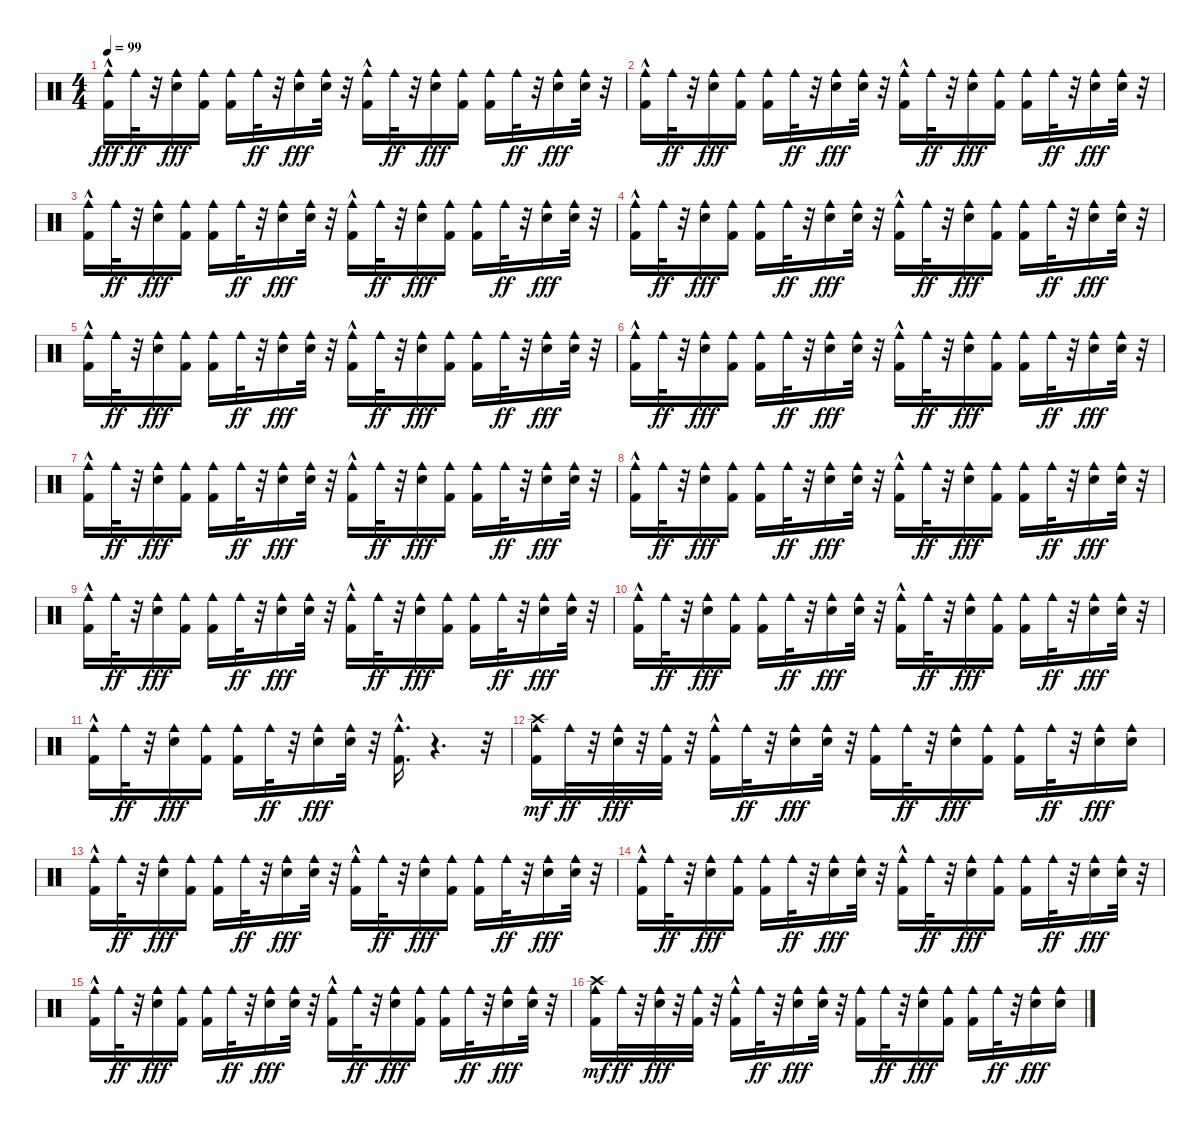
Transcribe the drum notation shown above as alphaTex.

\track "" {instrument percussion}
\staff {score}
\articulation defaults
\ts (4 4)
\tempo 99
\clef neutral
\ks c
("Cowbell medium (hit)" "Kick (hit) 2"{hac}).16{dy fff} "Cowbell medium (hit)".32{dy ff} r.32 ("Cowbell medium (hit)" "Electric Snare (hit)").16{dy fff} ("Cowbell medium (hit)" "Kick (hit) 2").16 ("Cowbell medium (hit)" "Kick (hit) 2").16 "Cowbell medium (hit)".32{dy ff} r.32 ("Cowbell medium (hit)" "Electric Snare (hit)").16{dy fff} ("Cowbell medium (hit)" "Electric Snare (hit)").32 r.32 ("Cowbell medium (hit)" "Kick (hit) 2"{hac}).16 "Cowbell medium (hit)".32{dy ff} r.32 ("Cowbell medium (hit)" "Electric Snare (hit)").16{dy fff} ("Cowbell medium (hit)" "Kick (hit) 2").16 ("Cowbell medium (hit)" "Kick (hit) 2").16 "Cowbell medium (hit)".32{dy ff} r.32 ("Cowbell medium (hit)" "Electric Snare (hit)").16{dy fff} ("Cowbell medium (hit)" "Electric Snare (hit)").32 r.32 |
("Cowbell medium (hit)" "Kick (hit) 2"{hac}).16 "Cowbell medium (hit)".32{dy ff} r.32 ("Cowbell medium (hit)" "Electric Snare (hit)").16{dy fff} ("Cowbell medium (hit)" "Kick (hit) 2").16 ("Cowbell medium (hit)" "Kick (hit) 2").16 "Cowbell medium (hit)".32{dy ff} r.32 ("Cowbell medium (hit)" "Electric Snare (hit)").16{dy fff} ("Cowbell medium (hit)" "Electric Snare (hit)").32 r.32 ("Cowbell medium (hit)" "Kick (hit) 2"{hac}).16 "Cowbell medium (hit)".32{dy ff} r.32 ("Cowbell medium (hit)" "Electric Snare (hit)").16{dy fff} ("Cowbell medium (hit)" "Kick (hit) 2").16 ("Cowbell medium (hit)" "Kick (hit) 2").16 "Cowbell medium (hit)".32{dy ff} r.32 ("Cowbell medium (hit)" "Electric Snare (hit)").16{dy fff} ("Cowbell medium (hit)" "Electric Snare (hit)").32 r.32 |
("Cowbell medium (hit)" "Kick (hit) 2"{hac}).16 "Cowbell medium (hit)".32{dy ff} r.32 ("Cowbell medium (hit)" "Electric Snare (hit)").16{dy fff} ("Cowbell medium (hit)" "Kick (hit) 2").16 ("Cowbell medium (hit)" "Kick (hit) 2").16 "Cowbell medium (hit)".32{dy ff} r.32 ("Cowbell medium (hit)" "Electric Snare (hit)").16{dy fff} ("Cowbell medium (hit)" "Electric Snare (hit)").32 r.32 ("Cowbell medium (hit)" "Kick (hit) 2"{hac}).16 "Cowbell medium (hit)".32{dy ff} r.32 ("Cowbell medium (hit)" "Electric Snare (hit)").16{dy fff} ("Cowbell medium (hit)" "Kick (hit) 2").16 ("Cowbell medium (hit)" "Kick (hit) 2").16 "Cowbell medium (hit)".32{dy ff} r.32 ("Cowbell medium (hit)" "Electric Snare (hit)").16{dy fff} ("Cowbell medium (hit)" "Electric Snare (hit)").32 r.32 |
("Cowbell medium (hit)" "Kick (hit) 2"{hac}).16 "Cowbell medium (hit)".32{dy ff} r.32 ("Cowbell medium (hit)" "Electric Snare (hit)").16{dy fff} ("Cowbell medium (hit)" "Kick (hit) 2").16 ("Cowbell medium (hit)" "Kick (hit) 2").16 "Cowbell medium (hit)".32{dy ff} r.32 ("Cowbell medium (hit)" "Electric Snare (hit)").16{dy fff} ("Cowbell medium (hit)" "Electric Snare (hit)").32 r.32 ("Cowbell medium (hit)" "Kick (hit) 2"{hac}).16 "Cowbell medium (hit)".32{dy ff} r.32 ("Cowbell medium (hit)" "Electric Snare (hit)").16{dy fff} ("Cowbell medium (hit)" "Kick (hit) 2").16 ("Cowbell medium (hit)" "Kick (hit) 2").16 "Cowbell medium (hit)".32{dy ff} r.32 ("Cowbell medium (hit)" "Electric Snare (hit)").16{dy fff} ("Cowbell medium (hit)" "Electric Snare (hit)").32 r.32 |
("Cowbell medium (hit)" "Kick (hit) 2"{hac}).16 "Cowbell medium (hit)".32{dy ff} r.32 ("Cowbell medium (hit)" "Electric Snare (hit)").16{dy fff} ("Cowbell medium (hit)" "Kick (hit) 2").16 ("Cowbell medium (hit)" "Kick (hit) 2").16 "Cowbell medium (hit)".32{dy ff} r.32 ("Cowbell medium (hit)" "Electric Snare (hit)").16{dy fff} ("Cowbell medium (hit)" "Electric Snare (hit)").32 r.32 ("Cowbell medium (hit)" "Kick (hit) 2"{hac}).16 "Cowbell medium (hit)".32{dy ff} r.32 ("Cowbell medium (hit)" "Electric Snare (hit)").16{dy fff} ("Cowbell medium (hit)" "Kick (hit) 2").16 ("Cowbell medium (hit)" "Kick (hit) 2").16 "Cowbell medium (hit)".32{dy ff} r.32 ("Cowbell medium (hit)" "Electric Snare (hit)").16{dy fff} ("Cowbell medium (hit)" "Electric Snare (hit)").32 r.32 |
("Cowbell medium (hit)" "Kick (hit) 2"{hac}).16 "Cowbell medium (hit)".32{dy ff} r.32 ("Cowbell medium (hit)" "Electric Snare (hit)").16{dy fff} ("Cowbell medium (hit)" "Kick (hit) 2").16 ("Cowbell medium (hit)" "Kick (hit) 2").16 "Cowbell medium (hit)".32{dy ff} r.32 ("Cowbell medium (hit)" "Electric Snare (hit)").16{dy fff} ("Cowbell medium (hit)" "Electric Snare (hit)").32 r.32 ("Cowbell medium (hit)" "Kick (hit) 2"{hac}).16 "Cowbell medium (hit)".32{dy ff} r.32 ("Cowbell medium (hit)" "Electric Snare (hit)").16{dy fff} ("Cowbell medium (hit)" "Kick (hit) 2").16 ("Cowbell medium (hit)" "Kick (hit) 2").16 "Cowbell medium (hit)".32{dy ff} r.32 ("Cowbell medium (hit)" "Electric Snare (hit)").16{dy fff} ("Cowbell medium (hit)" "Electric Snare (hit)").32 r.32 |
("Cowbell medium (hit)" "Kick (hit) 2"{hac}).16 "Cowbell medium (hit)".32{dy ff} r.32 ("Cowbell medium (hit)" "Electric Snare (hit)").16{dy fff} ("Cowbell medium (hit)" "Kick (hit) 2").16 ("Cowbell medium (hit)" "Kick (hit) 2").16 "Cowbell medium (hit)".32{dy ff} r.32 ("Cowbell medium (hit)" "Electric Snare (hit)").16{dy fff} ("Cowbell medium (hit)" "Electric Snare (hit)").32 r.32 ("Cowbell medium (hit)" "Kick (hit) 2"{hac}).16 "Cowbell medium (hit)".32{dy ff} r.32 ("Cowbell medium (hit)" "Electric Snare (hit)").16{dy fff} ("Cowbell medium (hit)" "Kick (hit) 2").16 ("Cowbell medium (hit)" "Kick (hit) 2").16 "Cowbell medium (hit)".32{dy ff} r.32 ("Cowbell medium (hit)" "Electric Snare (hit)").16{dy fff} ("Cowbell medium (hit)" "Electric Snare (hit)").32 r.32 |
("Cowbell medium (hit)" "Kick (hit) 2"{hac}).16 "Cowbell medium (hit)".32{dy ff} r.32 ("Cowbell medium (hit)" "Electric Snare (hit)").16{dy fff} ("Cowbell medium (hit)" "Kick (hit) 2").16 ("Cowbell medium (hit)" "Kick (hit) 2").16 "Cowbell medium (hit)".32{dy ff} r.32 ("Cowbell medium (hit)" "Electric Snare (hit)").16{dy fff} ("Cowbell medium (hit)" "Electric Snare (hit)").32 r.32 ("Cowbell medium (hit)" "Kick (hit) 2"{hac}).16 "Cowbell medium (hit)".32{dy ff} r.32 ("Cowbell medium (hit)" "Electric Snare (hit)").16{dy fff} ("Cowbell medium (hit)" "Kick (hit) 2").16 ("Cowbell medium (hit)" "Kick (hit) 2").16 "Cowbell medium (hit)".32{dy ff} r.32 ("Cowbell medium (hit)" "Electric Snare (hit)").16{dy fff} ("Cowbell medium (hit)" "Electric Snare (hit)").32 r.32 |
("Cowbell medium (hit)" "Kick (hit) 2"{hac}).16 "Cowbell medium (hit)".32{dy ff} r.32 ("Cowbell medium (hit)" "Electric Snare (hit)").16{dy fff} ("Cowbell medium (hit)" "Kick (hit) 2").16 ("Cowbell medium (hit)" "Kick (hit) 2").16 "Cowbell medium (hit)".32{dy ff} r.32 ("Cowbell medium (hit)" "Electric Snare (hit)").16{dy fff} ("Cowbell medium (hit)" "Electric Snare (hit)").32 r.32 ("Cowbell medium (hit)" "Kick (hit) 2"{hac}).16 "Cowbell medium (hit)".32{dy ff} r.32 ("Cowbell medium (hit)" "Electric Snare (hit)").16{dy fff} ("Cowbell medium (hit)" "Kick (hit) 2").16 ("Cowbell medium (hit)" "Kick (hit) 2").16 "Cowbell medium (hit)".32{dy ff} r.32 ("Cowbell medium (hit)" "Electric Snare (hit)").16{dy fff} ("Cowbell medium (hit)" "Electric Snare (hit)").32 r.32 |
("Cowbell medium (hit)" "Kick (hit) 2"{hac}).16 "Cowbell medium (hit)".32{dy ff} r.32 ("Cowbell medium (hit)" "Electric Snare (hit)").16{dy fff} ("Cowbell medium (hit)" "Kick (hit) 2").16 ("Cowbell medium (hit)" "Kick (hit) 2").16 "Cowbell medium (hit)".32{dy ff} r.32 ("Cowbell medium (hit)" "Electric Snare (hit)").16{dy fff} ("Cowbell medium (hit)" "Electric Snare (hit)").32 r.32 ("Cowbell medium (hit)" "Kick (hit) 2"{hac}).16 "Cowbell medium (hit)".32{dy ff} r.32 ("Cowbell medium (hit)" "Electric Snare (hit)").16{dy fff} ("Cowbell medium (hit)" "Kick (hit) 2").16 ("Cowbell medium (hit)" "Kick (hit) 2").16 "Cowbell medium (hit)".32{dy ff} r.32 ("Cowbell medium (hit)" "Electric Snare (hit)").16{dy fff} ("Cowbell medium (hit)" "Electric Snare (hit)").32 r.32 |
("Cowbell medium (hit)" "Kick (hit) 2"{hac}).16 "Cowbell medium (hit)".32{dy ff} r.32 ("Cowbell medium (hit)" "Electric Snare (hit)").16{dy fff} ("Cowbell medium (hit)" "Kick (hit) 2").16 ("Cowbell medium (hit)" "Kick (hit) 2").16 "Cowbell medium (hit)".32{dy ff} r.32 ("Cowbell medium (hit)" "Electric Snare (hit)").16{dy fff} ("Cowbell medium (hit)" "Electric Snare (hit)").32 r.32 ("Cowbell medium (hit)" "Kick (hit) 2"{hac}).16{d} r.4{d} r.32 |
("Cowbell medium (hit)" "Kick (hit) 2" "Crash high (hit)").16{dy mf} "Cowbell medium (hit)".32{dy ff} r.32 ("Cowbell medium (hit)" "Electric Snare (hit)").32{dy fff} r.32 ("Cowbell medium (hit)" "Kick (hit) 2").32 r.32 ("Cowbell medium (hit)" "Kick (hit) 2"{hac}).16 "Cowbell medium (hit)".32{dy ff} r.32 ("Cowbell medium (hit)" "Electric Snare (hit)").16{dy fff} ("Cowbell medium (hit)" "Electric Snare (hit)").32 r.32 ("Cowbell medium (hit)" "Kick (hit) 2").16 "Cowbell medium (hit)".32{dy ff} r.32 ("Cowbell medium (hit)" "Electric Snare (hit)").16{dy fff} ("Cowbell medium (hit)" "Kick (hit) 2").16 ("Cowbell medium (hit)" "Kick (hit) 2").16 "Cowbell medium (hit)".32{dy ff} r.32 ("Cowbell medium (hit)" "Electric Snare (hit)").16{dy fff} ("Cowbell medium (hit)" "Electric Snare (hit)").16 |
("Cowbell medium (hit)" "Kick (hit) 2"{hac}).16 "Cowbell medium (hit)".32{dy ff} r.32 ("Cowbell medium (hit)" "Electric Snare (hit)").16{dy fff} ("Cowbell medium (hit)" "Kick (hit) 2").16 ("Cowbell medium (hit)" "Kick (hit) 2").16 "Cowbell medium (hit)".32{dy ff} r.32 ("Cowbell medium (hit)" "Electric Snare (hit)").16{dy fff} ("Cowbell medium (hit)" "Electric Snare (hit)").32 r.32 ("Cowbell medium (hit)" "Kick (hit) 2"{hac}).16 "Cowbell medium (hit)".32{dy ff} r.32 ("Cowbell medium (hit)" "Electric Snare (hit)").16{dy fff} ("Cowbell medium (hit)" "Kick (hit) 2").16 ("Cowbell medium (hit)" "Kick (hit) 2").16 "Cowbell medium (hit)".32{dy ff} r.32 ("Cowbell medium (hit)" "Electric Snare (hit)").16{dy fff} ("Cowbell medium (hit)" "Electric Snare (hit)").32 r.32 |
("Cowbell medium (hit)" "Kick (hit) 2"{hac}).16 "Cowbell medium (hit)".32{dy ff} r.32 ("Cowbell medium (hit)" "Electric Snare (hit)").16{dy fff} ("Cowbell medium (hit)" "Kick (hit) 2").16 ("Cowbell medium (hit)" "Kick (hit) 2").16 "Cowbell medium (hit)".32{dy ff} r.32 ("Cowbell medium (hit)" "Electric Snare (hit)").16{dy fff} ("Cowbell medium (hit)" "Electric Snare (hit)").32 r.32 ("Cowbell medium (hit)" "Kick (hit) 2"{hac}).16 "Cowbell medium (hit)".32{dy ff} r.32 ("Cowbell medium (hit)" "Electric Snare (hit)").16{dy fff} ("Cowbell medium (hit)" "Kick (hit) 2").16 ("Cowbell medium (hit)" "Kick (hit) 2").16 "Cowbell medium (hit)".32{dy ff} r.32 ("Cowbell medium (hit)" "Electric Snare (hit)").16{dy fff} ("Cowbell medium (hit)" "Electric Snare (hit)").32 r.32 |
("Cowbell medium (hit)" "Kick (hit) 2"{hac}).16 "Cowbell medium (hit)".32{dy ff} r.32 ("Cowbell medium (hit)" "Electric Snare (hit)").16{dy fff} ("Cowbell medium (hit)" "Kick (hit) 2").16 ("Cowbell medium (hit)" "Kick (hit) 2").16 "Cowbell medium (hit)".32{dy ff} r.32 ("Cowbell medium (hit)" "Electric Snare (hit)").16{dy fff} ("Cowbell medium (hit)" "Electric Snare (hit)").32 r.32 ("Cowbell medium (hit)" "Kick (hit) 2"{hac}).16 "Cowbell medium (hit)".32{dy ff} r.32 ("Cowbell medium (hit)" "Electric Snare (hit)").16{dy fff} ("Cowbell medium (hit)" "Kick (hit) 2").16 ("Cowbell medium (hit)" "Kick (hit) 2").16 "Cowbell medium (hit)".32{dy ff} r.32 ("Cowbell medium (hit)" "Electric Snare (hit)").16{dy fff} ("Cowbell medium (hit)" "Electric Snare (hit)").32 r.32 |
("Cowbell medium (hit)" "Kick (hit) 2" "Crash high (hit)").16{dy mf} "Cowbell medium (hit)".32{dy ff} r.32 ("Cowbell medium (hit)" "Electric Snare (hit)").32{dy fff} r.32 ("Cowbell medium (hit)" "Kick (hit) 2").32 r.32 ("Cowbell medium (hit)" "Kick (hit) 2"{hac}).16 "Cowbell medium (hit)".32{dy ff} r.32 ("Cowbell medium (hit)" "Electric Snare (hit)").16{dy fff} ("Cowbell medium (hit)" "Electric Snare (hit)").32 r.32 ("Cowbell medium (hit)" "Kick (hit) 2").16 "Cowbell medium (hit)".32{dy ff} r.32 ("Cowbell medium (hit)" "Electric Snare (hit)").16{dy fff} ("Cowbell medium (hit)" "Kick (hit) 2").16 ("Cowbell medium (hit)" "Kick (hit) 2").16 "Cowbell medium (hit)".32{dy ff} r.32 ("Cowbell medium (hit)" "Electric Snare (hit)").16{dy fff} ("Cowbell medium (hit)" "Electric Snare (hit)").16
